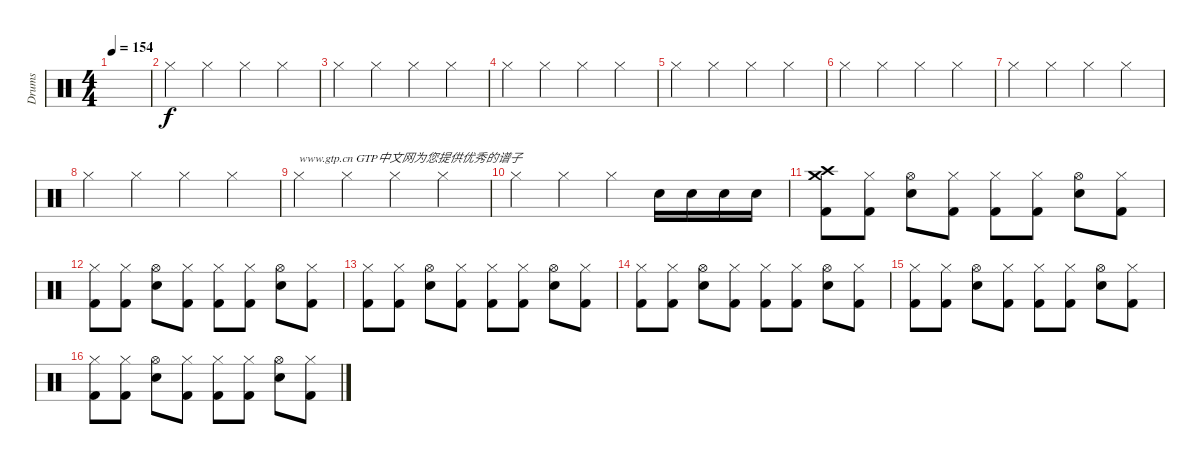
\track ("Drums" "Drums") {instrument percussion}
\staff {score}
\articulation defaults
\ts (4 4)
\tempo 154
\clef neutral
\ks c
|
"Hi-Hat (closed)".4 "Hi-Hat (closed)".4 "Hi-Hat (closed)".4 "Hi-Hat (closed)".4 |
"Hi-Hat (closed)".4 "Hi-Hat (closed)".4 "Hi-Hat (closed)".4 "Hi-Hat (closed)".4 |
"Hi-Hat (closed)".4 "Hi-Hat (closed)".4 "Hi-Hat (closed)".4 "Hi-Hat (closed)".4 |
"Hi-Hat (closed)".4 "Hi-Hat (closed)".4 "Hi-Hat (closed)".4 "Hi-Hat (closed)".4 |
"Hi-Hat (closed)".4 "Hi-Hat (closed)".4 "Hi-Hat (closed)".4 "Hi-Hat (closed)".4 |
"Hi-Hat (closed)".4 "Hi-Hat (closed)".4 "Hi-Hat (closed)".4 "Hi-Hat (closed)".4 |
"Hi-Hat (closed)".4 "Hi-Hat (closed)".4 "Hi-Hat (closed)".4 "Hi-Hat (closed)".4 |
"Hi-Hat (closed)".4{txt "www.gtp.cn GTP中文网为您提供优秀的谱子"} "Hi-Hat (closed)".4 "Hi-Hat (closed)".4 "Hi-Hat (closed)".4 |
"Hi-Hat (closed)".4 "Hi-Hat (closed)".4 "Hi-Hat (closed)".4 "Snare (hit) 2".16 "Snare (hit) 2".16 "Snare (hit) 2".16 "Snare (hit) 2".16 |
("Crash medium (hit)" "Crash high (hit)" "Kick (hit) 2").8 ("Hi-Hat (closed)" "Kick (hit) 2").8 ("Hi-Hat (open)" "Snare (hit) 2").8 ("Hi-Hat (closed)" "Kick (hit) 2").8 ("Hi-Hat (closed)" "Kick (hit) 2").8 ("Hi-Hat (closed)" "Kick (hit) 2").8 ("Hi-Hat (open)" "Snare (hit) 2").8 ("Hi-Hat (closed)" "Kick (hit) 2").8 |
("Hi-Hat (closed)" "Kick (hit) 2").8 ("Hi-Hat (closed)" "Kick (hit) 2").8 ("Hi-Hat (open)" "Snare (hit) 2").8 ("Hi-Hat (closed)" "Kick (hit) 2").8 ("Hi-Hat (closed)" "Kick (hit) 2").8 ("Hi-Hat (closed)" "Kick (hit) 2").8 ("Hi-Hat (open)" "Snare (hit) 2").8 ("Hi-Hat (closed)" "Kick (hit) 2").8 |
("Hi-Hat (closed)" "Kick (hit) 2").8 ("Hi-Hat (closed)" "Kick (hit) 2").8 ("Hi-Hat (open)" "Snare (hit) 2").8 ("Hi-Hat (closed)" "Kick (hit) 2").8 ("Hi-Hat (closed)" "Kick (hit) 2").8 ("Hi-Hat (closed)" "Kick (hit) 2").8 ("Hi-Hat (open)" "Snare (hit) 2").8 ("Hi-Hat (closed)" "Kick (hit) 2").8 |
("Hi-Hat (closed)" "Kick (hit) 2").8 ("Hi-Hat (closed)" "Kick (hit) 2").8 ("Hi-Hat (open)" "Snare (hit) 2").8 ("Hi-Hat (closed)" "Kick (hit) 2").8 ("Hi-Hat (closed)" "Kick (hit) 2").8 ("Hi-Hat (closed)" "Kick (hit) 2").8 ("Hi-Hat (open)" "Snare (hit) 2").8 ("Hi-Hat (closed)" "Kick (hit) 2").8 |
("Hi-Hat (closed)" "Kick (hit) 2").8 ("Hi-Hat (closed)" "Kick (hit) 2").8 ("Hi-Hat (open)" "Snare (hit) 2").8 ("Hi-Hat (closed)" "Kick (hit) 2").8 ("Hi-Hat (closed)" "Kick (hit) 2").8 ("Hi-Hat (closed)" "Kick (hit) 2").8 ("Hi-Hat (open)" "Snare (hit) 2").8 ("Hi-Hat (closed)" "Kick (hit) 2").8 |
("Hi-Hat (closed)" "Kick (hit) 2").8 ("Hi-Hat (closed)" "Kick (hit) 2").8 ("Hi-Hat (open)" "Snare (hit) 2").8 ("Hi-Hat (closed)" "Kick (hit) 2").8 ("Hi-Hat (closed)" "Kick (hit) 2").8 ("Hi-Hat (closed)" "Kick (hit) 2").8 ("Hi-Hat (open)" "Snare (hit) 2").8 ("Hi-Hat (closed)" "Kick (hit) 2").8
